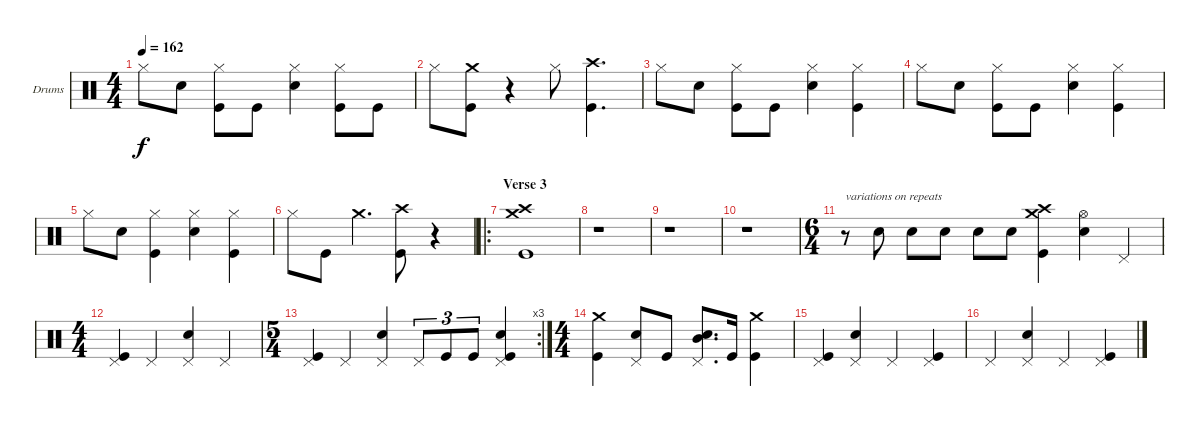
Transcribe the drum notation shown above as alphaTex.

\defaultSystemsLayout 4
\bracketExtendMode groupsimilarinstruments
\firstSystemTrackNameOrientation horizontal
\otherSystemsTrackNameOrientation horizontal
\track ("Drumkit" "Drums") {instrument percussion}
\staff {score}
\articulation defaults
\ts (4 4)
\tempo 162
\clef neutral
\ks c "Hi-Hat (closed)".8{dy f} "Snare (hit) 2".8
("Kick (hit)" "Hi-Hat (closed)").8 "Kick (hit)".8 ("Snare (hit) 2" "Hi-Hat (closed)").4 ("Kick (hit)" "Hi-Hat (closed)").8 "Kick (hit)".8 |
"Hi-Hat (closed)".8 ("Crash medium (hit)" "Kick (hit)").8 r.4 "Hi-Hat (closed)".8 ("Crash high (hit)" "Kick (hit)").4{d} |
"Hi-Hat (closed)".8 "Snare (hit) 2".8 ("Hi-Hat (closed)" "Kick (hit)").8 "Kick (hit)".8 ("Hi-Hat (closed)" "Snare (hit) 2").4 ("Hi-Hat (closed)" "Kick (hit)").4 |
"Hi-Hat (closed)".8 "Snare (hit) 2".8 ("Hi-Hat (closed)" "Kick (hit)").8 "Kick (hit)".8 ("Hi-Hat (closed)" "Snare (hit) 2").4 ("Hi-Hat (closed)" "Kick (hit)").4 |
"Hi-Hat (closed)".8 "Snare (hit) 2".8 ("Hi-Hat (closed)" "Kick (hit)").4 ("Hi-Hat (closed)" "Snare (hit) 2").4 ("Hi-Hat (closed)" "Kick (hit)").4 |
"Hi-Hat (closed)".8 "Kick (hit)".8 "Crash medium (hit)".4{d} ("Kick (hit)" "Crash high (hit)").8 r.4 |
\ro
\section ("" "Verse 3")
("Kick (hit)" "Crash medium (hit)" "Crash high (hit)").1 |
r.1 |
r.1 |
r.1 |
\ts (6 4)
r.8{txt "variations on repeats"} "Snare (hit) 2".8 "Snare (hit) 2".8 "Snare (hit) 2".8 "Snare (hit) 2".8 "Snare (hit) 2".8 ("Crash high (hit)" "Kick (hit)" "Crash medium (hit)").4 ("Snare (hit) 2" "Hi-Hat (open)").4 "Pedal Hi-Hat (hit)".4 |
\ts (4 4)
("Pedal Hi-Hat (hit)" "Kick (hit)").4 "Pedal Hi-Hat (hit)".4 ("Snare (hit) 2" "Pedal Hi-Hat (hit)").4 "Pedal Hi-Hat (hit)".4 |
\rc 3
\ts (5 4)
("Kick (hit)" "Pedal Hi-Hat (hit)").4 "Pedal Hi-Hat (hit)".4 ("Snare (hit) 2" "Pedal Hi-Hat (hit)").4 "Pedal Hi-Hat (hit)".8{tu (3 2)} "Kick (hit)".8{tu (3 2)} "Kick (hit)".8{tu (3 2)} ("Snare (hit) 2" "Pedal Hi-Hat (hit)" "Kick (hit)").4 |
\ts (4 4)
("Kick (hit)" "Crash medium (hit)").4 ("Pedal Hi-Hat (hit)" "Snare (hit) 2").8 "Kick (hit)".8 ("Pedal Hi-Hat (hit)" "Snare (hit) 2" "Mid Tom (hit)").8{d} "Kick (hit)".16 ("Crash medium (hit)" "Kick (hit)").4 |
("Pedal Hi-Hat (hit)" "Kick (hit)").4 ("Pedal Hi-Hat (hit)" "Snare (hit) 2").4 "Pedal Hi-Hat (hit)".4 ("Kick (hit)" "Pedal Hi-Hat (hit)").4 |
"Pedal Hi-Hat (hit)".4 ("Snare (hit) 2" "Pedal Hi-Hat (hit)").4 "Pedal Hi-Hat (hit)".4 ("Kick (hit)" "Pedal Hi-Hat (hit)").4
